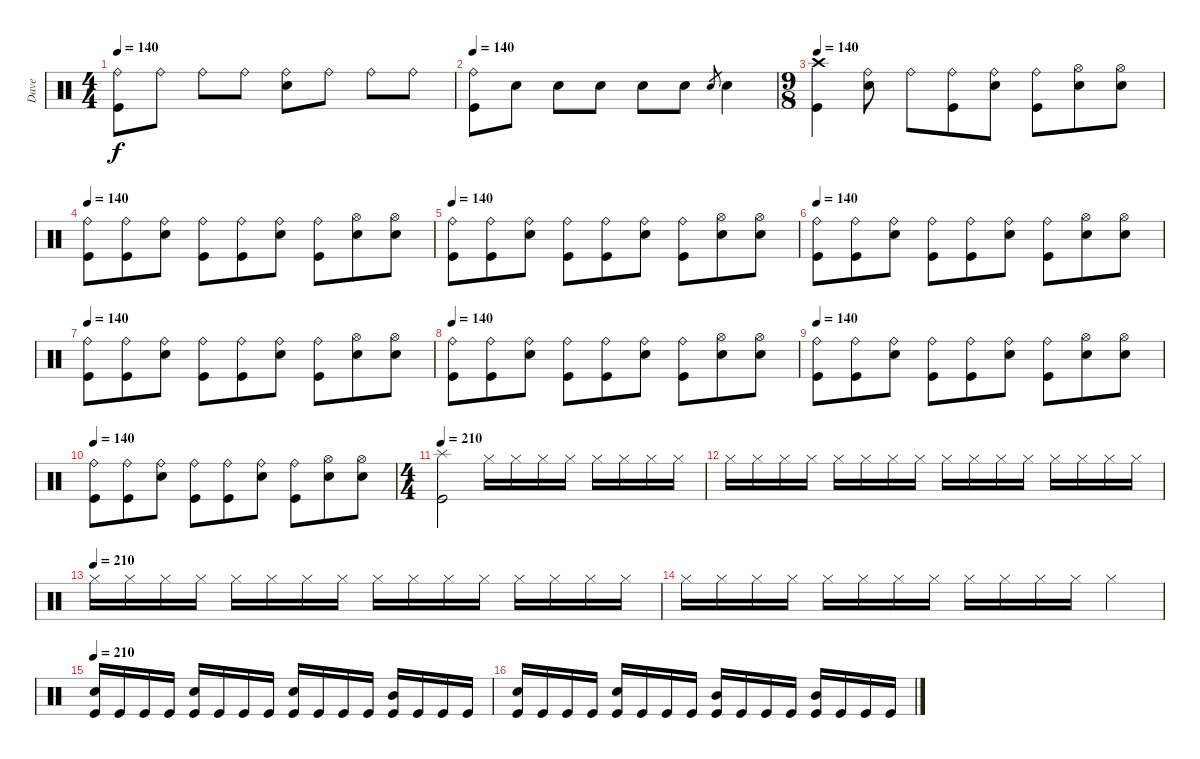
\track ("Dave" "Dave") {instrument percussion}
\staff {score}
\articulation defaults
\ts (4 4)
\tempo 140
\clef neutral
\ks c
("Kick (hit)" "Ride (bell)").8{dy f} "Ride (bell)".8 "Ride (bell)".8 "Ride (bell)".8 ("Electric Snare (hit)" "Ride (bell)").8 "Ride (bell)".8 "Ride (bell)".8 "Ride (bell)".8 |
\tempo 140
("Kick (hit)" "Ride (bell)").8 "Electric Snare (hit)".8 "Electric Snare (hit)".8 "Electric Snare (hit)".8 "Electric Snare (hit)".8 "Electric Snare (hit)".8 "Electric Snare (hit)".8{gr} "Electric Snare (hit)".4 |
\ts (9 8)
\tempo 140
("Kick (hit)" "Crash high (hit)").4 ("Electric Snare (hit)" "Ride (bell)").8 "Ride (bell)".8 ("Kick (hit)" "Ride (bell)").8 ("Electric Snare (hit)" "Ride (bell)").8 ("Kick (hit)" "Ride (bell)").8 ("Electric Snare (hit)" "Hi-Hat (open)").8 ("Electric Snare (hit)" "Hi-Hat (open)").8 |
\tempo 140
("Kick (hit)" "Ride (bell)").8 ("Kick (hit)" "Ride (bell)").8 ("Electric Snare (hit)" "Ride (bell)").8 ("Kick (hit)" "Ride (bell)").8 ("Kick (hit)" "Ride (bell)").8 ("Electric Snare (hit)" "Ride (bell)").8 ("Kick (hit)" "Ride (bell)").8 ("Electric Snare (hit)" "Hi-Hat (open)").8 ("Electric Snare (hit)" "Hi-Hat (open)").8 |
\tempo 140
("Kick (hit)" "Ride (bell)").8 ("Kick (hit)" "Ride (bell)").8 ("Electric Snare (hit)" "Ride (bell)").8 ("Kick (hit)" "Ride (bell)").8 ("Kick (hit)" "Ride (bell)").8 ("Electric Snare (hit)" "Ride (bell)").8 ("Kick (hit)" "Ride (bell)").8 ("Electric Snare (hit)" "Hi-Hat (open)").8 ("Electric Snare (hit)" "Hi-Hat (open)").8 |
\tempo 140
("Kick (hit)" "Ride (bell)").8 ("Kick (hit)" "Ride (bell)").8 ("Electric Snare (hit)" "Ride (bell)").8 ("Kick (hit)" "Ride (bell)").8 ("Kick (hit)" "Ride (bell)").8 ("Electric Snare (hit)" "Ride (bell)").8 ("Kick (hit)" "Ride (bell)").8 ("Electric Snare (hit)" "Hi-Hat (open)").8 ("Electric Snare (hit)" "Hi-Hat (open)").8 |
\tempo 140
("Kick (hit)" "Ride (bell)").8 ("Kick (hit)" "Ride (bell)").8 ("Electric Snare (hit)" "Ride (bell)").8 ("Kick (hit)" "Ride (bell)").8 ("Kick (hit)" "Ride (bell)").8 ("Electric Snare (hit)" "Ride (bell)").8 ("Kick (hit)" "Ride (bell)").8 ("Electric Snare (hit)" "Hi-Hat (open)").8 ("Electric Snare (hit)" "Hi-Hat (open)").8 |
\tempo 140
("Kick (hit)" "Ride (bell)").8 ("Kick (hit)" "Ride (bell)").8 ("Electric Snare (hit)" "Ride (bell)").8 ("Kick (hit)" "Ride (bell)").8 ("Kick (hit)" "Ride (bell)").8 ("Electric Snare (hit)" "Ride (bell)").8 ("Kick (hit)" "Ride (bell)").8 ("Electric Snare (hit)" "Hi-Hat (open)").8 ("Electric Snare (hit)" "Hi-Hat (open)").8 |
\tempo 140
("Kick (hit)" "Ride (bell)").8 ("Kick (hit)" "Ride (bell)").8 ("Electric Snare (hit)" "Ride (bell)").8 ("Kick (hit)" "Ride (bell)").8 ("Kick (hit)" "Ride (bell)").8 ("Electric Snare (hit)" "Ride (bell)").8 ("Kick (hit)" "Ride (bell)").8 ("Electric Snare (hit)" "Hi-Hat (open)").8 ("Electric Snare (hit)" "Hi-Hat (open)").8 |
\tempo 140
("Kick (hit)" "Ride (bell)").8 ("Kick (hit)" "Ride (bell)").8 ("Electric Snare (hit)" "Ride (bell)").8 ("Kick (hit)" "Ride (bell)").8 ("Kick (hit)" "Ride (bell)").8 ("Electric Snare (hit)" "Ride (bell)").8 ("Kick (hit)" "Ride (bell)").8 ("Electric Snare (hit)" "Hi-Hat (open)").8 ("Electric Snare (hit)" "Hi-Hat (open)").8 |
\ts (4 4)
\tempo 210
("Kick (hit)" "Splash (hit)").2 "Hi-Hat (closed)".16 "Hi-Hat (closed)".16 "Hi-Hat (closed)".16 "Hi-Hat (closed)".16 "Hi-Hat (closed)".16 "Hi-Hat (closed)".16 "Hi-Hat (closed)".16 "Hi-Hat (closed)".16 |
"Hi-Hat (closed)".16 "Hi-Hat (closed)".16 "Hi-Hat (closed)".16 "Hi-Hat (closed)".16 "Hi-Hat (closed)".16 "Hi-Hat (closed)".16 "Hi-Hat (closed)".16 "Hi-Hat (closed)".16 "Hi-Hat (closed)".16 "Hi-Hat (closed)".16 "Hi-Hat (closed)".16 "Hi-Hat (closed)".16 "Hi-Hat (closed)".16 "Hi-Hat (closed)".16 "Hi-Hat (closed)".16 "Hi-Hat (closed)".16 |
\tempo (210)
"Hi-Hat (closed)".16 "Hi-Hat (closed)".16 "Hi-Hat (closed)".16 "Hi-Hat (closed)".16 "Hi-Hat (closed)".16 "Hi-Hat (closed)".16 "Hi-Hat (closed)".16 "Hi-Hat (closed)".16 "Hi-Hat (closed)".16 "Hi-Hat (closed)".16 "Hi-Hat (closed)".16 "Hi-Hat (closed)".16 "Hi-Hat (closed)".16 "Hi-Hat (closed)".16 "Hi-Hat (closed)".16 "Hi-Hat (closed)".16 |
"Hi-Hat (closed)".16 "Hi-Hat (closed)".16 "Hi-Hat (closed)".16 "Hi-Hat (closed)".16 "Hi-Hat (closed)".16 "Hi-Hat (closed)".16 "Hi-Hat (closed)".16 "Hi-Hat (closed)".16 "Hi-Hat (closed)".16 "Hi-Hat (closed)".16 "Hi-Hat (closed)".16 "Hi-Hat (closed)".16 "Hi-Hat (closed)".4 |
\tempo 210
("Kick (hit)" "Electric Snare (hit)").16 "Kick (hit)".16 "Kick (hit)".16 "Kick (hit)".16 ("Kick (hit)" "Electric Snare (hit)").16 "Kick (hit)".16 "Kick (hit)".16 "Kick (hit)".16 ("Kick (hit)" "Electric Snare (hit)").16 "Kick (hit)".16 "Kick (hit)".16 "Kick (hit)".16 ("Kick (hit)" "Mid Tom (hit)").16 "Kick (hit)".16 "Kick (hit)".16 "Kick (hit)".16 |
("Kick (hit)" "Electric Snare (hit)").16 "Kick (hit)".16 "Kick (hit)".16 "Kick (hit)".16 ("Kick (hit)" "Electric Snare (hit)").16 "Kick (hit)".16 "Kick (hit)".16 "Kick (hit)".16 ("Kick (hit)" "Mid Tom (hit)").16 "Kick (hit)".16 "Kick (hit)".16 "Kick (hit)".16 ("Kick (hit)" "Mid Tom (hit)").16 "Kick (hit)".16 "Kick (hit)".16 "Kick (hit)".16
